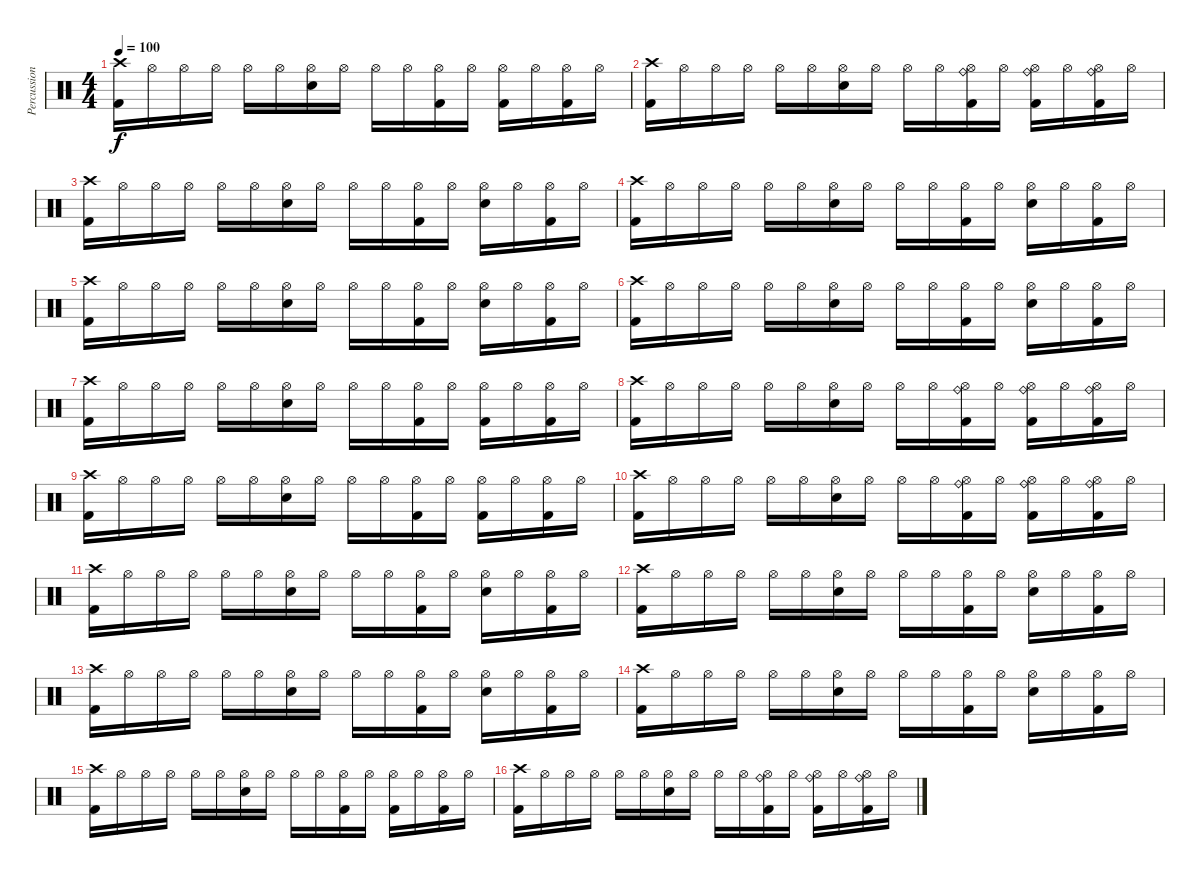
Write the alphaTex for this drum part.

\track ("Percussion" "Percussion") {instrument percussion}
\staff {score}
\articulation defaults
\ts (4 4)
\tempo 100
\clef neutral
\ks c
("Crash high (hit)" "Kick (hit) 2").16{dy f} "Hi-Hat (open)".16 "Hi-Hat (open)".16 "Hi-Hat (open)".16 "Hi-Hat (open)".16 "Hi-Hat (open)".16 ("Hi-Hat (open)" "Snare (hit) 2").16 "Hi-Hat (open)".16 "Hi-Hat (open)".16 "Hi-Hat (open)".16 ("Hi-Hat (open)" "Kick (hit) 2").16 "Hi-Hat (open)".16 ("Hi-Hat (open)" "Kick (hit) 2").16 "Hi-Hat (open)".16 ("Hi-Hat (open)" "Kick (hit) 2").16 "Hi-Hat (open)".16 |
("Crash high (hit)" "Kick (hit) 2").16 "Hi-Hat (open)".16 "Hi-Hat (open)".16 "Hi-Hat (open)".16 "Hi-Hat (open)".16 "Hi-Hat (open)".16 ("Hi-Hat (open)" "Snare (hit) 2").16 "Hi-Hat (open)".16 "Hi-Hat (open)".16 "Hi-Hat (open)".16 ("Hi-Hat (open)" "Ride (bell)" "Kick (hit) 2").16 "Hi-Hat (open)".16 ("Hi-Hat (open)" "Ride (bell)" "Kick (hit) 2").16 "Hi-Hat (open)".16 ("Hi-Hat (open)" "Ride (bell)" "Kick (hit) 2").16 "Hi-Hat (open)".16 |
("Crash high (hit)" "Kick (hit) 2").16 "Hi-Hat (open)".16 "Hi-Hat (open)".16 "Hi-Hat (open)".16 "Hi-Hat (open)".16 "Hi-Hat (open)".16 ("Hi-Hat (open)" "Snare (hit) 2").16 "Hi-Hat (open)".16 "Hi-Hat (open)".16 "Hi-Hat (open)".16 ("Hi-Hat (open)" "Kick (hit) 2").16 "Hi-Hat (open)".16 ("Hi-Hat (open)" "Snare (hit) 2").16 "Hi-Hat (open)".16 ("Hi-Hat (open)" "Kick (hit) 2").16 "Hi-Hat (open)".16 |
("Crash high (hit)" "Kick (hit) 2").16 "Hi-Hat (open)".16 "Hi-Hat (open)".16 "Hi-Hat (open)".16 "Hi-Hat (open)".16 "Hi-Hat (open)".16 ("Hi-Hat (open)" "Snare (hit) 2").16 "Hi-Hat (open)".16 "Hi-Hat (open)".16 "Hi-Hat (open)".16 ("Hi-Hat (open)" "Kick (hit) 2").16 "Hi-Hat (open)".16 ("Hi-Hat (open)" "Snare (hit) 2").16 "Hi-Hat (open)".16 ("Hi-Hat (open)" "Kick (hit) 2").16 "Hi-Hat (open)".16 |
("Crash high (hit)" "Kick (hit) 2").16 "Hi-Hat (open)".16 "Hi-Hat (open)".16 "Hi-Hat (open)".16 "Hi-Hat (open)".16 "Hi-Hat (open)".16 ("Hi-Hat (open)" "Snare (hit) 2").16 "Hi-Hat (open)".16 "Hi-Hat (open)".16 "Hi-Hat (open)".16 ("Hi-Hat (open)" "Kick (hit) 2").16 "Hi-Hat (open)".16 ("Hi-Hat (open)" "Snare (hit) 2").16 "Hi-Hat (open)".16 ("Hi-Hat (open)" "Kick (hit) 2").16 "Hi-Hat (open)".16 |
("Crash high (hit)" "Kick (hit) 2").16 "Hi-Hat (open)".16 "Hi-Hat (open)".16 "Hi-Hat (open)".16 "Hi-Hat (open)".16 "Hi-Hat (open)".16 ("Hi-Hat (open)" "Snare (hit) 2").16 "Hi-Hat (open)".16 "Hi-Hat (open)".16 "Hi-Hat (open)".16 ("Hi-Hat (open)" "Kick (hit) 2").16 "Hi-Hat (open)".16 ("Hi-Hat (open)" "Snare (hit) 2").16 "Hi-Hat (open)".16 ("Hi-Hat (open)" "Kick (hit) 2").16 "Hi-Hat (open)".16 |
("Crash high (hit)" "Kick (hit) 2").16 "Hi-Hat (open)".16 "Hi-Hat (open)".16 "Hi-Hat (open)".16 "Hi-Hat (open)".16 "Hi-Hat (open)".16 ("Hi-Hat (open)" "Snare (hit) 2").16 "Hi-Hat (open)".16 "Hi-Hat (open)".16 "Hi-Hat (open)".16 ("Hi-Hat (open)" "Kick (hit) 2").16 "Hi-Hat (open)".16 ("Hi-Hat (open)" "Kick (hit) 2").16 "Hi-Hat (open)".16 ("Hi-Hat (open)" "Kick (hit) 2").16 "Hi-Hat (open)".16 |
("Crash high (hit)" "Kick (hit) 2").16 "Hi-Hat (open)".16 "Hi-Hat (open)".16 "Hi-Hat (open)".16 "Hi-Hat (open)".16 "Hi-Hat (open)".16 ("Hi-Hat (open)" "Snare (hit) 2").16 "Hi-Hat (open)".16 "Hi-Hat (open)".16 "Hi-Hat (open)".16 ("Hi-Hat (open)" "Ride (bell)" "Kick (hit) 2").16 "Hi-Hat (open)".16 ("Hi-Hat (open)" "Ride (bell)" "Kick (hit) 2").16 "Hi-Hat (open)".16 ("Hi-Hat (open)" "Ride (bell)" "Kick (hit) 2").16 "Hi-Hat (open)".16 |
("Crash high (hit)" "Kick (hit) 2").16 "Hi-Hat (open)".16 "Hi-Hat (open)".16 "Hi-Hat (open)".16 "Hi-Hat (open)".16 "Hi-Hat (open)".16 ("Hi-Hat (open)" "Snare (hit) 2").16 "Hi-Hat (open)".16 "Hi-Hat (open)".16 "Hi-Hat (open)".16 ("Hi-Hat (open)" "Kick (hit) 2").16 "Hi-Hat (open)".16 ("Hi-Hat (open)" "Kick (hit) 2").16 "Hi-Hat (open)".16 ("Hi-Hat (open)" "Kick (hit) 2").16 "Hi-Hat (open)".16 |
("Crash high (hit)" "Kick (hit) 2").16 "Hi-Hat (open)".16 "Hi-Hat (open)".16 "Hi-Hat (open)".16 "Hi-Hat (open)".16 "Hi-Hat (open)".16 ("Hi-Hat (open)" "Snare (hit) 2").16 "Hi-Hat (open)".16 "Hi-Hat (open)".16 "Hi-Hat (open)".16 ("Hi-Hat (open)" "Ride (bell)" "Kick (hit) 2").16 "Hi-Hat (open)".16 ("Hi-Hat (open)" "Ride (bell)" "Kick (hit) 2").16 "Hi-Hat (open)".16 ("Hi-Hat (open)" "Ride (bell)" "Kick (hit) 2").16 "Hi-Hat (open)".16 |
("Crash high (hit)" "Kick (hit) 2").16 "Hi-Hat (open)".16 "Hi-Hat (open)".16 "Hi-Hat (open)".16 "Hi-Hat (open)".16 "Hi-Hat (open)".16 ("Hi-Hat (open)" "Snare (hit) 2").16 "Hi-Hat (open)".16 "Hi-Hat (open)".16 "Hi-Hat (open)".16 ("Hi-Hat (open)" "Kick (hit) 2").16 "Hi-Hat (open)".16 ("Hi-Hat (open)" "Snare (hit) 2").16 "Hi-Hat (open)".16 ("Hi-Hat (open)" "Kick (hit) 2").16 "Hi-Hat (open)".16 |
("Crash high (hit)" "Kick (hit) 2").16 "Hi-Hat (open)".16 "Hi-Hat (open)".16 "Hi-Hat (open)".16 "Hi-Hat (open)".16 "Hi-Hat (open)".16 ("Hi-Hat (open)" "Snare (hit) 2").16 "Hi-Hat (open)".16 "Hi-Hat (open)".16 "Hi-Hat (open)".16 ("Hi-Hat (open)" "Kick (hit) 2").16 "Hi-Hat (open)".16 ("Hi-Hat (open)" "Snare (hit) 2").16 "Hi-Hat (open)".16 ("Hi-Hat (open)" "Kick (hit) 2").16 "Hi-Hat (open)".16 |
("Crash high (hit)" "Kick (hit) 2").16 "Hi-Hat (open)".16 "Hi-Hat (open)".16 "Hi-Hat (open)".16 "Hi-Hat (open)".16 "Hi-Hat (open)".16 ("Hi-Hat (open)" "Snare (hit) 2").16 "Hi-Hat (open)".16 "Hi-Hat (open)".16 "Hi-Hat (open)".16 ("Hi-Hat (open)" "Kick (hit) 2").16 "Hi-Hat (open)".16 ("Hi-Hat (open)" "Snare (hit) 2").16 "Hi-Hat (open)".16 ("Hi-Hat (open)" "Kick (hit) 2").16 "Hi-Hat (open)".16 |
("Crash high (hit)" "Kick (hit) 2").16 "Hi-Hat (open)".16 "Hi-Hat (open)".16 "Hi-Hat (open)".16 "Hi-Hat (open)".16 "Hi-Hat (open)".16 ("Hi-Hat (open)" "Snare (hit) 2").16 "Hi-Hat (open)".16 "Hi-Hat (open)".16 "Hi-Hat (open)".16 ("Hi-Hat (open)" "Kick (hit) 2").16 "Hi-Hat (open)".16 ("Hi-Hat (open)" "Snare (hit) 2").16 "Hi-Hat (open)".16 ("Hi-Hat (open)" "Kick (hit) 2").16 "Hi-Hat (open)".16 |
("Crash high (hit)" "Kick (hit) 2").16 "Hi-Hat (open)".16 "Hi-Hat (open)".16 "Hi-Hat (open)".16 "Hi-Hat (open)".16 "Hi-Hat (open)".16 ("Hi-Hat (open)" "Snare (hit) 2").16 "Hi-Hat (open)".16 "Hi-Hat (open)".16 "Hi-Hat (open)".16 ("Hi-Hat (open)" "Kick (hit) 2").16 "Hi-Hat (open)".16 ("Hi-Hat (open)" "Kick (hit) 2").16 "Hi-Hat (open)".16 ("Hi-Hat (open)" "Kick (hit) 2").16 "Hi-Hat (open)".16 |
("Crash high (hit)" "Kick (hit) 2").16 "Hi-Hat (open)".16 "Hi-Hat (open)".16 "Hi-Hat (open)".16 "Hi-Hat (open)".16 "Hi-Hat (open)".16 ("Hi-Hat (open)" "Snare (hit) 2").16 "Hi-Hat (open)".16 "Hi-Hat (open)".16 "Hi-Hat (open)".16 ("Hi-Hat (open)" "Ride (bell)" "Kick (hit) 2").16 "Hi-Hat (open)".16 ("Hi-Hat (open)" "Ride (bell)" "Kick (hit) 2").16 "Hi-Hat (open)".16 ("Hi-Hat (open)" "Ride (bell)" "Kick (hit) 2").16 "Hi-Hat (open)".16
